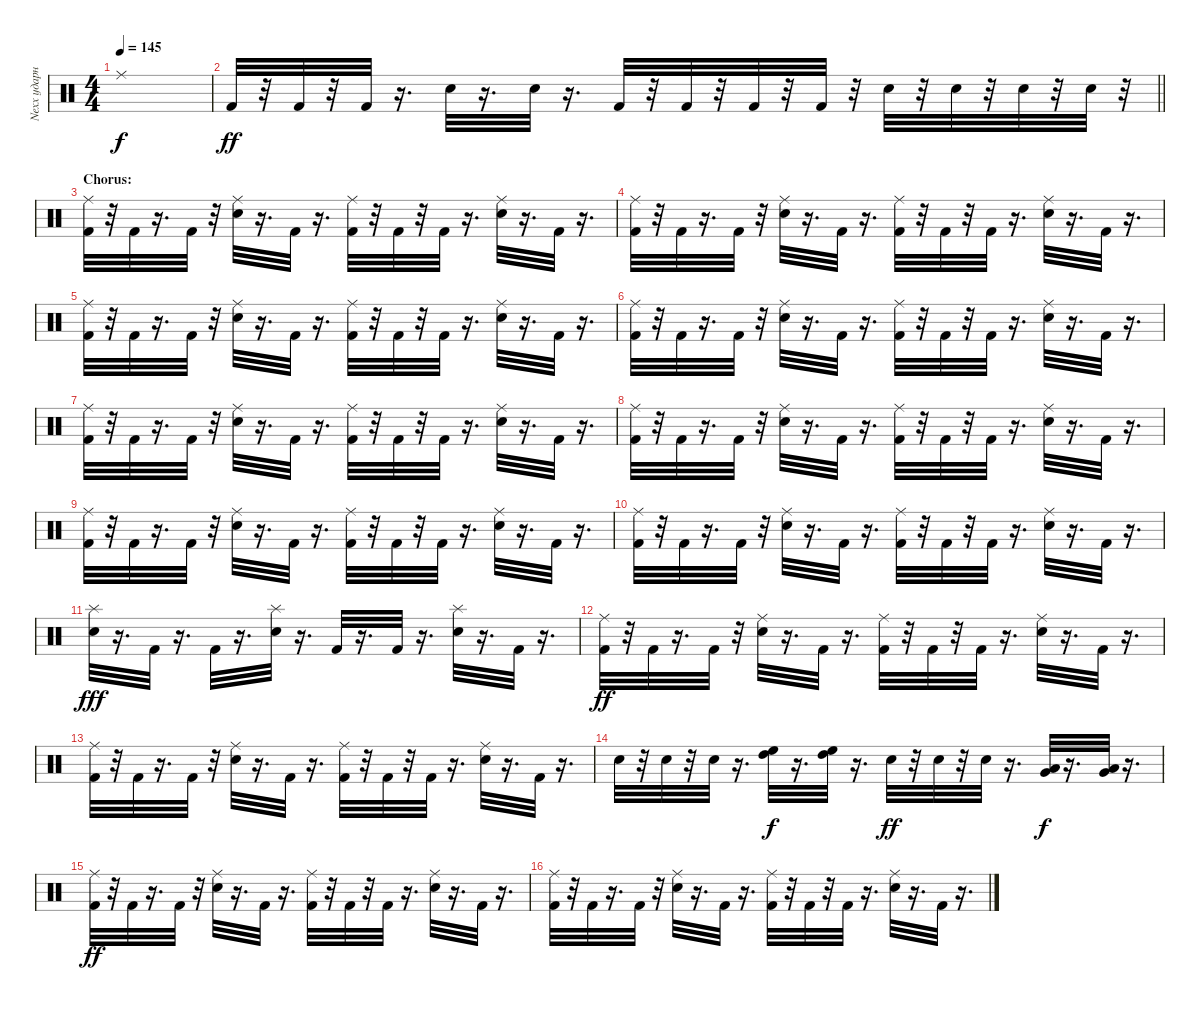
\track ("Nexx ударные" "Nexx ударн") {instrument percussion}
\staff {score}
\articulation defaults
\ts (4 4)
\tempo 145
\clef neutral
\ks c "Ride (middle)".1{dy f}
|
\barLineRight lightlight "Kick (hit) 2".32{dy ff}
r.32 "Kick (hit) 2".32 r.32 "Kick (hit) 2".32 r.16{d} "Electric Snare (hit)".32 r.16{d} "Electric Snare (hit)".32 r.16{d} "Kick (hit) 2".32 r.32 "Kick (hit) 2".32 r.32 "Kick (hit) 2".32 r.32 "Kick (hit) 2".32 r.32 "Electric Snare (hit)".32 r.32 "Electric Snare (hit)".32 r.32 "Electric Snare (hit)".32 r.32 "Electric Snare (hit)".32 r.32 |
\section ("" "Chorus:")
("Ride (middle)" "Kick (hit) 2").32 r.32 "Kick (hit) 2".32 r.16{d} "Kick (hit) 2".32 r.32 ("Ride (middle)" "Electric Snare (hit)").32 r.16{d} "Kick (hit) 2".32 r.16{d} ("Ride (middle)" "Kick (hit) 2").32 r.32 "Kick (hit) 2".32 r.32 "Kick (hit) 2".32 r.16{d} ("Ride (middle)" "Electric Snare (hit)").32 r.16{d} "Kick (hit) 2".32 r.16{d} |
("Ride (middle)" "Kick (hit) 2").32 r.32 "Kick (hit) 2".32 r.16{d} "Kick (hit) 2".32 r.32 ("Ride (middle)" "Electric Snare (hit)").32 r.16{d} "Kick (hit) 2".32 r.16{d} ("Ride (middle)" "Kick (hit) 2").32 r.32 "Kick (hit) 2".32 r.32 "Kick (hit) 2".32 r.16{d} ("Ride (middle)" "Electric Snare (hit)").32 r.16{d} "Kick (hit) 2".32 r.16{d} |
("Ride (middle)" "Kick (hit) 2").32 r.32 "Kick (hit) 2".32 r.16{d} "Kick (hit) 2".32 r.32 ("Ride (middle)" "Electric Snare (hit)").32 r.16{d} "Kick (hit) 2".32 r.16{d} ("Ride (middle)" "Kick (hit) 2").32 r.32 "Kick (hit) 2".32 r.32 "Kick (hit) 2".32 r.16{d} ("Ride (middle)" "Electric Snare (hit)").32 r.16{d} "Kick (hit) 2".32 r.16{d} |
("Ride (middle)" "Kick (hit) 2").32 r.32 "Kick (hit) 2".32 r.16{d} "Kick (hit) 2".32 r.32 ("Ride (middle)" "Electric Snare (hit)").32 r.16{d} "Kick (hit) 2".32 r.16{d} ("Ride (middle)" "Kick (hit) 2").32 r.32 "Kick (hit) 2".32 r.32 "Kick (hit) 2".32 r.16{d} ("Ride (middle)" "Electric Snare (hit)").32 r.16{d} "Kick (hit) 2".32 r.16{d} |
("Ride (middle)" "Kick (hit) 2").32 r.32 "Kick (hit) 2".32 r.16{d} "Kick (hit) 2".32 r.32 ("Ride (middle)" "Electric Snare (hit)").32 r.16{d} "Kick (hit) 2".32 r.16{d} ("Ride (middle)" "Kick (hit) 2").32 r.32 "Kick (hit) 2".32 r.32 "Kick (hit) 2".32 r.16{d} ("Ride (middle)" "Electric Snare (hit)").32 r.16{d} "Kick (hit) 2".32 r.16{d} |
("Ride (middle)" "Kick (hit) 2").32 r.32 "Kick (hit) 2".32 r.16{d} "Kick (hit) 2".32 r.32 ("Ride (middle)" "Electric Snare (hit)").32 r.16{d} "Kick (hit) 2".32 r.16{d} ("Ride (middle)" "Kick (hit) 2").32 r.32 "Kick (hit) 2".32 r.32 "Kick (hit) 2".32 r.16{d} ("Ride (middle)" "Electric Snare (hit)").32 r.16{d} "Kick (hit) 2".32 r.16{d} |
("Ride (middle)" "Kick (hit) 2").32 r.32 "Kick (hit) 2".32 r.16{d} "Kick (hit) 2".32 r.32 ("Ride (middle)" "Electric Snare (hit)").32 r.16{d} "Kick (hit) 2".32 r.16{d} ("Ride (middle)" "Kick (hit) 2").32 r.32 "Kick (hit) 2".32 r.32 "Kick (hit) 2".32 r.16{d} ("Ride (middle)" "Electric Snare (hit)").32 r.16{d} "Kick (hit) 2".32 r.16{d} |
("Ride (middle)" "Kick (hit) 2").32 r.32 "Kick (hit) 2".32 r.16{d} "Kick (hit) 2".32 r.32 ("Ride (middle)" "Electric Snare (hit)").32 r.16{d} "Kick (hit) 2".32 r.16{d} ("Ride (middle)" "Kick (hit) 2").32 r.32 "Kick (hit) 2".32 r.32 "Kick (hit) 2".32 r.16{d} ("Ride (middle)" "Electric Snare (hit)").32 r.16{d} "Kick (hit) 2".32 r.16{d} |
("Snare (hit) 2" "Splash (hit)").32{dy fff} r.16{d} "Kick (hit) 2".32 r.16{d} "Kick (hit) 2".32 r.16{d} ("Splash (hit)" "Snare (hit) 2").32 r.16{d} "Kick (hit) 2".32 r.16{d} "Kick (hit) 2".32 r.16{d} ("Splash (hit)" "Snare (hit) 2").32 r.16{d} "Kick (hit) 2".32 r.16{d} |
("Ride (middle)" "Kick (hit) 2").32{dy ff} r.32 "Kick (hit) 2".32 r.16{d} "Kick (hit) 2".32 r.32 ("Ride (middle)" "Electric Snare (hit)").32 r.16{d} "Kick (hit) 2".32 r.16{d} ("Ride (middle)" "Kick (hit) 2").32 r.32 "Kick (hit) 2".32 r.32 "Kick (hit) 2".32 r.16{d} ("Ride (middle)" "Electric Snare (hit)").32 r.16{d} "Kick (hit) 2".32 r.16{d} |
("Ride (middle)" "Kick (hit) 2").32 r.32 "Kick (hit) 2".32 r.16{d} "Kick (hit) 2".32 r.32 ("Ride (middle)" "Electric Snare (hit)").32 r.16{d} "Kick (hit) 2".32 r.16{d} ("Ride (middle)" "Kick (hit) 2").32 r.32 "Kick (hit) 2".32 r.32 "Kick (hit) 2".32 r.16{d} ("Ride (middle)" "Electric Snare (hit)").32 r.16{d} "Kick (hit) 2".32 r.16{d} |
"Snare (hit) 2".32 r.32 "Snare (hit) 2".32 r.32 "Snare (hit) 2".32 r.16{d} ("High Floor Tom (hit)" "High Tom (hit)").32{dy f} r.16{d} ("High Tom (hit)" "High Floor Tom (hit)").32 r.16{d} "Snare (hit) 2".32{dy ff} r.32 "Snare (hit) 2".32 r.32 "Snare (hit) 2".32 r.16{d} ("Very Low Tom (hit)" "Low Tom (hit)").32{dy f} r.16{d} ("Very Low Tom (hit)" "Low Tom (hit)").32 r.16{d} |
("Ride (middle)" "Kick (hit) 2").32{dy ff} r.32 "Kick (hit) 2".32 r.16{d} "Kick (hit) 2".32 r.32 ("Ride (middle)" "Electric Snare (hit)").32 r.16{d} "Kick (hit) 2".32 r.16{d} ("Ride (middle)" "Kick (hit) 2").32 r.32 "Kick (hit) 2".32 r.32 "Kick (hit) 2".32 r.16{d} ("Ride (middle)" "Electric Snare (hit)").32 r.16{d} "Kick (hit) 2".32 r.16{d} |
("Ride (middle)" "Kick (hit) 2").32 r.32 "Kick (hit) 2".32 r.16{d} "Kick (hit) 2".32 r.32 ("Ride (middle)" "Electric Snare (hit)").32 r.16{d} "Kick (hit) 2".32 r.16{d} ("Ride (middle)" "Kick (hit) 2").32 r.32 "Kick (hit) 2".32 r.32 "Kick (hit) 2".32 r.16{d} ("Ride (middle)" "Electric Snare (hit)").32 r.16{d} "Kick (hit) 2".32 r.16{d}
